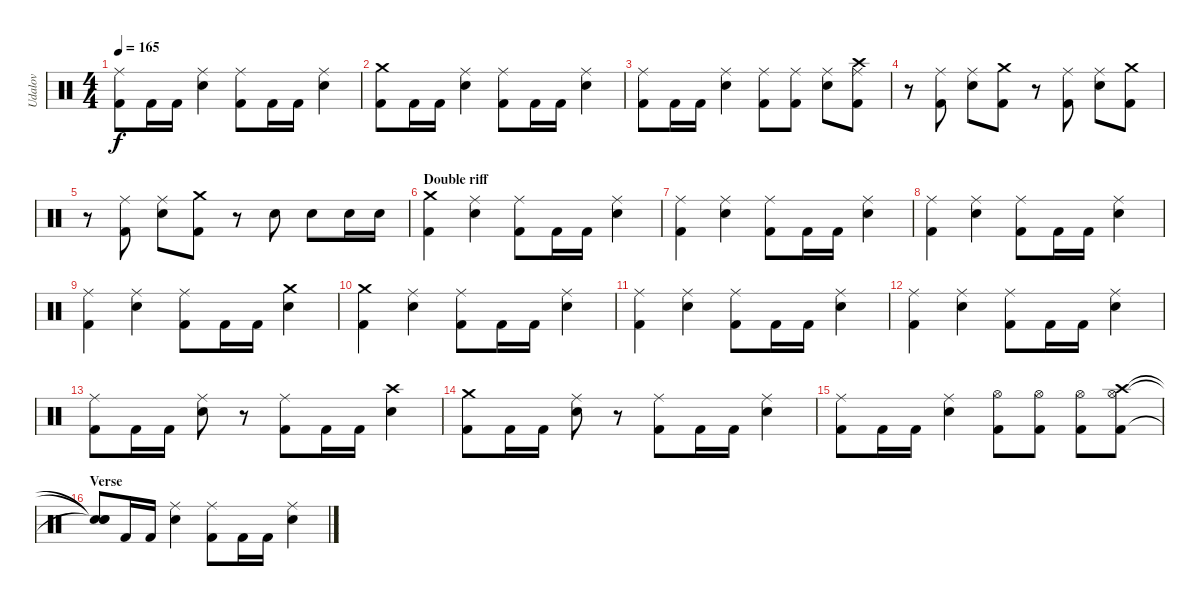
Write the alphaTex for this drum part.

\track ("Udalov" "Udalov") {instrument percussion}
\staff {score}
\articulation defaults
\ts (4 4)
\tempo 165
\clef neutral
\ks c
("Kick (hit) 2" "Ride (middle)").8{dy f} "Kick (hit) 2".16 "Kick (hit) 2".16 ("Snare (hit) 2" "Ride (middle)").4 ("Kick (hit) 2" "Ride (middle)").8 "Kick (hit) 2".16 "Kick (hit) 2".16 ("Snare (hit) 2" "Ride (middle)").4 |
("Kick (hit) 2" "Crash medium (hit)").8 "Kick (hit) 2".16 "Kick (hit) 2".16 ("Snare (hit) 2" "Ride (middle)").4 ("Kick (hit) 2" "Ride (middle)").8 "Kick (hit) 2".16 "Kick (hit) 2".16 ("Snare (hit) 2" "Ride (middle)").4 |
("Kick (hit) 2" "Ride (middle)").8 "Kick (hit) 2".16 "Kick (hit) 2".16 ("Snare (hit) 2" "Ride (middle)").4 ("Kick (hit) 2" "Ride (middle)").8 ("Kick (hit) 2" "Ride (middle)").8 ("Snare (hit) 2" "Ride (middle)").8 ("Kick (hit) 2" "Ride (middle)" "Crash high (hit)").8 |
r.8 ("Kick (hit) 2" "Ride (middle)").8 ("Snare (hit) 2" "Ride (middle)").8 ("Kick (hit) 2" "Crash medium (hit)").8 r.8 ("Kick (hit) 2" "Ride (middle)").8 ("Snare (hit) 2" "Ride (middle)").8 ("Kick (hit) 2" "Crash medium (hit)").8 |
r.8 ("Kick (hit) 2" "Ride (middle)").8 ("Snare (hit) 2" "Ride (middle)").8 ("Kick (hit) 2" "Crash medium (hit)").8 r.8 "Snare (hit) 2".8 "Snare (hit) 2".8 "Snare (hit) 2".16 "Snare (hit) 2".16 |
\section ("" "Double riff")
("Kick (hit) 2" "Crash medium (hit)").4 ("Snare (hit) 2" "Ride (middle)").4 ("Kick (hit) 2" "Ride (middle)").8 "Kick (hit) 2".16 "Kick (hit) 2".16 ("Snare (hit) 2" "Ride (middle)").4 |
("Kick (hit) 2" "Ride (middle)").4 ("Snare (hit) 2" "Ride (middle)").4 ("Kick (hit) 2" "Ride (middle)").8 "Kick (hit) 2".16 "Kick (hit) 2".16 ("Snare (hit) 2" "Ride (middle)").4 |
("Kick (hit) 2" "Ride (middle)").4 ("Snare (hit) 2" "Ride (middle)").4 ("Kick (hit) 2" "Ride (middle)").8 "Kick (hit) 2".16 "Kick (hit) 2".16 ("Snare (hit) 2" "Ride (middle)").4 |
("Kick (hit) 2" "Ride (middle)").4 ("Snare (hit) 2" "Ride (middle)").4 ("Kick (hit) 2" "Ride (middle)").8 "Kick (hit) 2".16 "Kick (hit) 2".16 ("Snare (hit) 2" "Crash medium (hit)").4 |
("Kick (hit) 2" "Crash medium (hit)").4 ("Snare (hit) 2" "Ride (middle)").4 ("Kick (hit) 2" "Ride (middle)").8 "Kick (hit) 2".16 "Kick (hit) 2".16 ("Snare (hit) 2" "Ride (middle)").4 |
("Kick (hit) 2" "Ride (middle)").4 ("Snare (hit) 2" "Ride (middle)").4 ("Kick (hit) 2" "Ride (middle)").8 "Kick (hit) 2".16 "Kick (hit) 2".16 ("Snare (hit) 2" "Ride (middle)").4 |
("Kick (hit) 2" "Ride (middle)").4 ("Snare (hit) 2" "Ride (middle)").4 ("Kick (hit) 2" "Ride (middle)").8 "Kick (hit) 2".16 "Kick (hit) 2".16 ("Snare (hit) 2" "Ride (middle)").4 |
("Kick (hit) 2" "Ride (middle)").8 "Kick (hit) 2".16 "Kick (hit) 2".16 ("Snare (hit) 2" "Ride (middle)").8 r.8 ("Kick (hit) 2" "Ride (middle)").8 "Kick (hit) 2".16 "Kick (hit) 2".16 ("Snare (hit) 2" "Crash high (hit)").4 |
("Kick (hit) 2" "Crash medium (hit)").8 "Kick (hit) 2".16 "Kick (hit) 2".16 ("Snare (hit) 2" "Ride (middle)").8 r.8 ("Kick (hit) 2" "Ride (middle)").8 "Kick (hit) 2".16 "Kick (hit) 2".16 ("Snare (hit) 2" "Ride (middle)").4 |
("Kick (hit) 2" "Ride (middle)").8 "Kick (hit) 2".16 "Kick (hit) 2".16 ("Snare (hit) 2" "Ride (middle)").4 ("Kick (hit) 2" "Hi-Hat (open)").8 ("Kick (hit) 2" "Hi-Hat (open)").8 ("Kick (hit) 2" "Hi-Hat (open)").8 ("Kick (hit) 2" "Hi-Hat (open)" "Crash high (hit)").8 |
\section ("" "Verse")
("Snare (hit)"{t} "Snare (hit)"{t} "Snare (hit)"{t}).8 "Kick (hit) 2".16 "Kick (hit) 2".16 ("Snare (hit) 2" "Ride (middle)").4 ("Kick (hit) 2" "Ride (middle)").8 "Kick (hit) 2".16 "Kick (hit) 2".16 ("Snare (hit) 2" "Ride (middle)").4
